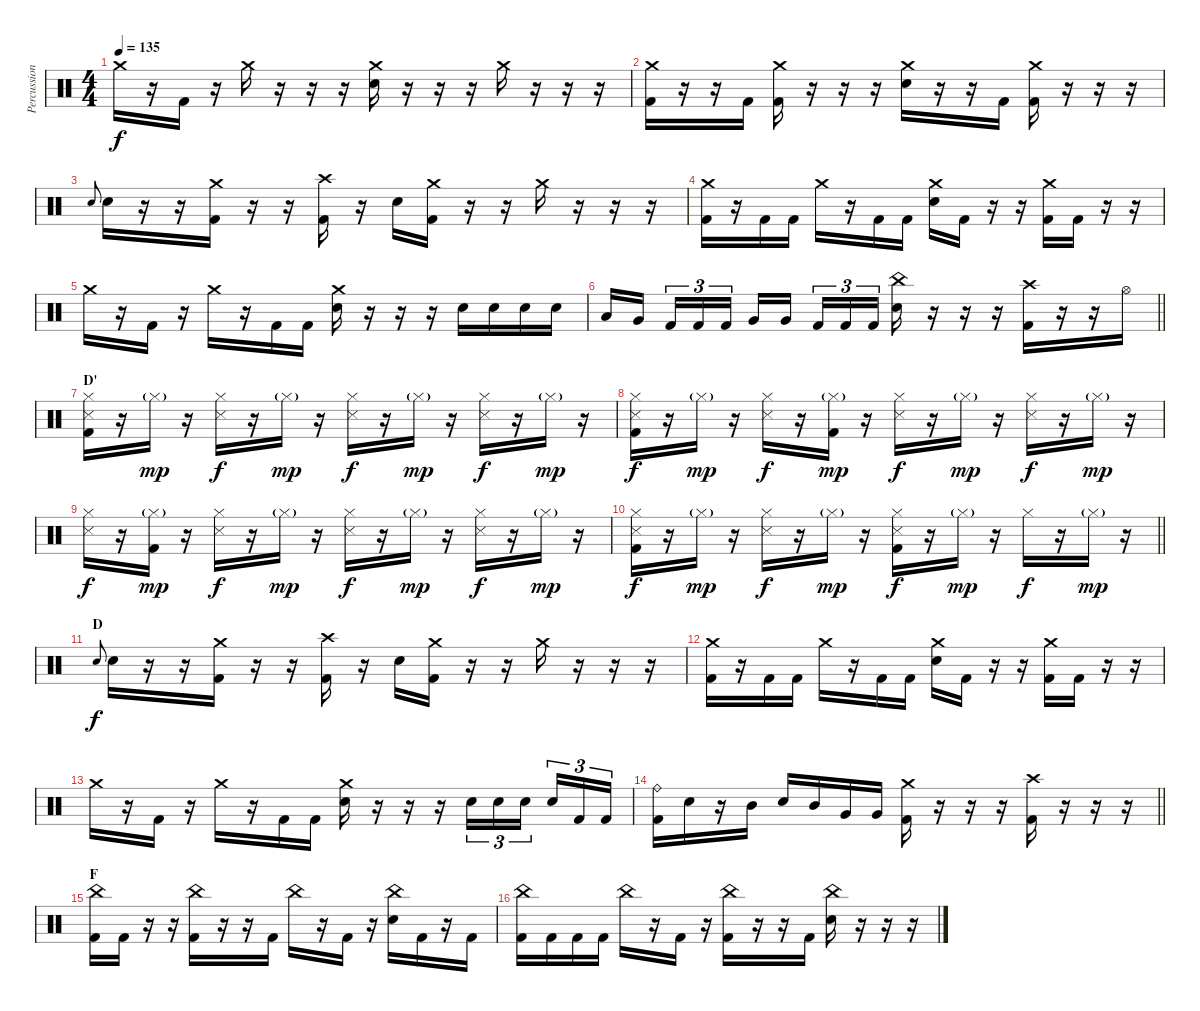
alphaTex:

\track ("Percussion" "Percussion") {instrument percussion}
\staff {score}
\articulation defaults
\ts (4 4)
\tempo 135
\clef neutral
\ks c "Crash medium (hit)".16{dy f}
r.16 "Kick (hit) 2".16 r.16 "Crash medium (hit)".16 r.16 r.16 r.16 ("Crash medium (hit)" "Snare (hit) 2").16 r.16 r.16 r.16 "Crash medium (hit)".16 r.16 r.16 r.16 |
("Crash medium (hit)" "Kick (hit) 2").16 r.16 r.16 "Kick (hit) 2".16 ("Crash medium (hit)" "Kick (hit) 2").16 r.16 r.16 r.16 ("Crash medium (hit)" "Snare (hit) 2").16 r.16 r.16 "Kick (hit) 2".16 ("Crash medium (hit)" "Kick (hit) 2").16 r.16 r.16 r.16 |
"Snare (hit) 2".8{gr onbeat} "Snare (hit) 2".16 r.16 r.16 ("Crash medium (hit)" "Kick (hit) 2").16 r.16 r.16 ("Crash high (hit)" "Kick (hit) 2").16 r.16 "Snare (hit) 2".16 ("Crash medium (hit)" "Kick (hit) 2").16 r.16 r.16 "Crash medium (hit)".16 r.16 r.16 r.16 |
("Crash medium (hit)" "Kick (hit) 2").16 r.16 "Kick (hit) 2".16 "Kick (hit) 2".16 "Crash medium (hit)".16 r.16 "Kick (hit) 2".16 "Kick (hit) 2".16 ("Crash medium (hit)" "Snare (hit) 2").16 "Kick (hit) 2".16 r.16 r.16 ("Crash medium (hit)" "Kick (hit) 2").16 "Kick (hit) 2".16 r.16 r.16 |
"Crash medium (hit)".16 r.16 "Kick (hit) 2".16 r.16 "Crash medium (hit)".16 r.16 "Kick (hit) 2".16 "Kick (hit) 2".16 ("Crash medium (hit)" "Snare (hit) 2").16 r.16 r.16 r.16 "Snare (hit) 2".16 "Snare (hit) 2".16 "Snare (hit) 2".16 "Snare (hit) 2".16 |
\barLineRight lightlight "Low Tom (hit)".16 "Very Low Tom (hit)".16{beam splitsecondary} "Kick (hit) 2".16{tu (3 2)} "Kick (hit) 2".16{tu (3 2)} "Kick (hit) 2".16{tu (3 2)} "Very Low Tom (hit)".16 "Very Low Tom (hit)".16{beam splitsecondary} "Kick (hit) 2".16{tu (3 2)} "Kick (hit) 2".16{tu (3 2)} "Kick (hit) 2".16{tu (3 2)}
("China (hit)" "Snare (hit) 2").16 r.16 r.16 r.16 ("Crash high (hit)" "Kick (hit) 2").16 r.16 r.16 "Hi-Hat (open)".16 |
\section ("" "D'")
("Hi-Hat (closed)" "Snare (side stick) 3" "Kick (hit) 2").16 r.16 "Hi-Hat (closed)"{g}.16{dy mp} r.16 ("Hi-Hat (closed)" "Snare (side stick) 3").16{dy f} r.16 "Hi-Hat (closed)"{g}.16{dy mp} r.16 ("Hi-Hat (closed)" "Snare (side stick) 3").16{dy f} r.16 "Hi-Hat (closed)"{g}.16{dy mp} r.16 ("Hi-Hat (closed)" "Snare (side stick) 3").16{dy f} r.16 "Hi-Hat (closed)"{g}.16{dy mp} r.16 |
("Hi-Hat (closed)" "Snare (side stick) 3" "Kick (hit) 2").16{dy f} r.16 "Hi-Hat (closed)"{g}.16{dy mp} r.16 ("Hi-Hat (closed)" "Snare (side stick) 3").16{dy f} r.16 ("Hi-Hat (closed)"{g} "Kick (hit) 2").16{dy mp} r.16 ("Hi-Hat (closed)" "Snare (side stick) 3").16{dy f} r.16 "Hi-Hat (closed)"{g}.16{dy mp} r.16 ("Hi-Hat (closed)" "Snare (side stick) 3").16{dy f} r.16 "Hi-Hat (closed)"{g}.16{dy mp} r.16 |
("Hi-Hat (closed)" "Snare (side stick) 3").16{dy f} r.16 ("Hi-Hat (closed)"{g} "Kick (hit) 2").16{dy mp} r.16 ("Hi-Hat (closed)" "Snare (side stick) 3").16{dy f} r.16 "Hi-Hat (closed)"{g}.16{dy mp} r.16 ("Hi-Hat (closed)" "Snare (side stick) 3").16{dy f} r.16 "Hi-Hat (closed)"{g}.16{dy mp} r.16 ("Hi-Hat (closed)" "Snare (side stick) 3").16{dy f} r.16 "Hi-Hat (closed)"{g}.16{dy mp} r.16 |
\barLineRight lightlight
("Hi-Hat (closed)" "Snare (side stick) 3" "Kick (hit) 2").16{dy f} r.16 "Hi-Hat (closed)"{g}.16{dy mp} r.16 ("Hi-Hat (closed)" "Snare (side stick) 3").16{dy f} r.16 "Hi-Hat (closed)"{g}.16{dy mp} r.16 ("Hi-Hat (closed)" "Snare (side stick) 3" "Kick (hit) 2").16{dy f} r.16 "Hi-Hat (closed)"{g}.16{dy mp} r.16 "Hi-Hat (closed)".16{dy f} r.16 "Hi-Hat (closed)"{g}.16{dy mp} r.16 |
\section ("" "D")
"Snare (hit) 2".8{gr onbeat dy f} "Snare (hit) 2".16 r.16 r.16 ("Crash medium (hit)" "Kick (hit) 2").16 r.16 r.16 ("Crash high (hit)" "Kick (hit) 2").16 r.16 "Snare (hit) 2".16 ("Crash medium (hit)" "Kick (hit) 2").16 r.16 r.16 "Crash medium (hit)".16 r.16 r.16 r.16 |
("Crash medium (hit)" "Kick (hit) 2").16 r.16 "Kick (hit) 2".16 "Kick (hit) 2".16 "Crash medium (hit)".16 r.16 "Kick (hit) 2".16 "Kick (hit) 2".16 ("Crash medium (hit)" "Snare (hit) 2").16 "Kick (hit) 2".16 r.16 r.16 ("Crash medium (hit)" "Kick (hit) 2").16 "Kick (hit) 2".16 r.16 r.16 |
"Crash medium (hit)".16 r.16 "Kick (hit) 2".16 r.16 "Crash medium (hit)".16 r.16 "Kick (hit) 2".16 "Kick (hit) 2".16 ("Crash medium (hit)" "Snare (hit) 2").16 r.16 r.16 r.16 "Snare (hit) 2".16{tu (3 2)} "Snare (hit) 2".16{tu (3 2)} "Snare (hit) 2".16{tu (3 2) beam splitsecondary} "Snare (hit) 2".16{tu (3 2)} "Kick (hit) 2".16{tu (3 2)} "Kick (hit) 2".16{tu (3 2)} |
\barLineRight lightlight
("Ride (bell)" "Kick (hit) 2").16 "Snare (hit) 2".16 r.16 "Mid Tom (hit)".16 "Snare (hit) 2".16 "Mid Tom (hit)".16 "Very Low Tom (hit)".16 "Very Low Tom (hit)".16 ("Crash medium (hit)" "Kick (hit) 2").16 r.16 r.16 r.16 ("Crash high (hit)" "Kick (hit) 2").16 r.16 r.16 r.16 |
\section ("" "F")
("China (hit)" "Kick (hit) 2").16 "Kick (hit) 2".16 r.16 r.16 ("China (hit)" "Kick (hit) 2").16 r.16 r.16 "Kick (hit) 2".16 "China (hit)".16 r.16 "Kick (hit) 2".16 r.16 ("China (hit)" "Snare (hit) 2").16 "Kick (hit) 2".16 r.16 "Kick (hit) 2".16 |
("China (hit)" "Kick (hit) 2").16 "Kick (hit) 2".16 "Kick (hit) 2".16 "Kick (hit) 2".16 "China (hit)".16 r.16 "Kick (hit) 2".16 r.16 ("China (hit)" "Kick (hit) 2").16 r.16 r.16 "Kick (hit) 2".16 ("China (hit)" "Snare (hit) 2").16 r.16 r.16 r.16
